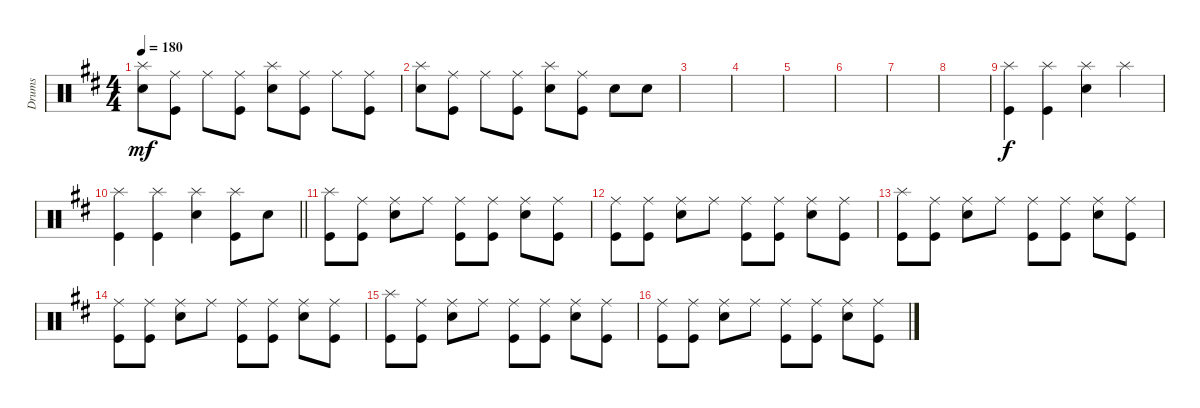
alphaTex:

\track ("Drums" "Drums") {instrument percussion}
\staff {score}
\articulation defaults
\ts (4 4)
\tempo 180
\clef neutral
\ks d
("Snare (hit) 2" "Splash (hit)").8{dy mf} ("Kick (hit)" "Ride (middle)").8 "Ride (middle)".8 ("Kick (hit)" "Ride (middle)").8 ("Snare (hit) 2" "Splash (hit)").8 ("Kick (hit)" "Ride (middle)").8 "Ride (middle)".8 ("Ride (middle)" "Kick (hit)").8 |
("Snare (hit) 2" "Splash (hit)").8 ("Kick (hit)" "Ride (middle)").8 "Ride (middle)".8 ("Kick (hit)" "Ride (middle)").8 ("Snare (hit) 2" "Splash (hit)").8 ("Kick (hit)" "Ride (middle)").8 "Snare (hit) 2".8 "Snare (hit) 2".8 |
|
|
|
|
|
|
("Kick (hit)" "Splash (hit)").4{dy f} ("Kick (hit)" "Splash (hit)").4 ("Snare (hit) 2" "Splash (hit)").4 "Splash (hit)".4 |
\barLineRight lightlight
("Kick (hit)" "Splash (hit)").4 ("Kick (hit)" "Splash (hit)").4 ("Snare (hit) 2" "Splash (hit)").4 ("Kick (hit)" "Splash (hit)").8 "Snare (hit) 2".8 |
("Kick (hit)" "Splash (hit)").8 ("Kick (hit)" "Ride (middle)").8 ("Snare (hit) 2" "Ride (middle)").8 "Ride (middle)".8 ("Kick (hit)" "Ride (middle)").8 ("Kick (hit)" "Ride (middle)").8 ("Snare (hit) 2" "Ride (middle)").8 ("Kick (hit)" "Ride (middle)").8 |
("Kick (hit)" "Ride (middle)").8 ("Kick (hit)" "Ride (middle)").8 ("Snare (hit) 2" "Ride (middle)").8 "Ride (middle)".8 ("Kick (hit)" "Ride (middle)").8 ("Kick (hit)" "Ride (middle)").8 ("Snare (hit) 2" "Ride (middle)").8 ("Kick (hit)" "Ride (middle)").8 |
("Kick (hit)" "Splash (hit)").8 ("Kick (hit)" "Ride (middle)").8 ("Snare (hit) 2" "Ride (middle)").8 "Ride (middle)".8 ("Kick (hit)" "Ride (middle)").8 ("Kick (hit)" "Ride (middle)").8 ("Snare (hit) 2" "Ride (middle)").8 ("Kick (hit)" "Ride (middle)").8 |
("Kick (hit)" "Ride (middle)").8 ("Kick (hit)" "Ride (middle)").8 ("Snare (hit) 2" "Ride (middle)").8 "Ride (middle)".8 ("Kick (hit)" "Ride (middle)").8 ("Kick (hit)" "Ride (middle)").8 ("Snare (hit) 2" "Ride (middle)").8 ("Kick (hit)" "Ride (middle)").8 |
("Kick (hit)" "Splash (hit)").8 ("Kick (hit)" "Ride (middle)").8 ("Snare (hit) 2" "Ride (middle)").8 "Ride (middle)".8 ("Kick (hit)" "Ride (middle)").8 ("Kick (hit)" "Ride (middle)").8 ("Snare (hit) 2" "Ride (middle)").8 ("Kick (hit)" "Ride (middle)").8 |
("Kick (hit)" "Ride (middle)").8 ("Kick (hit)" "Ride (middle)").8 ("Snare (hit) 2" "Ride (middle)").8 "Ride (middle)".8 ("Kick (hit)" "Ride (middle)").8 ("Kick (hit)" "Ride (middle)").8 ("Snare (hit) 2" "Ride (middle)").8 ("Kick (hit)" "Ride (middle)").8
